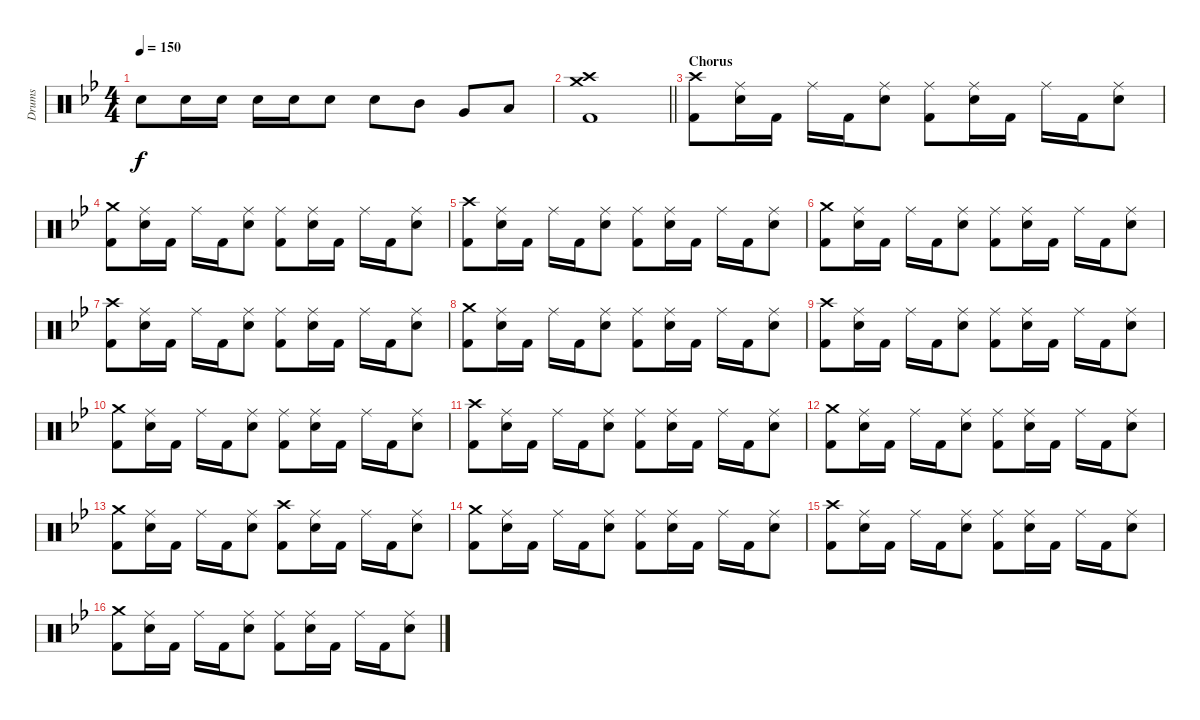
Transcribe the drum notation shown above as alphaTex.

\track ("Drums" "Drums") {instrument percussion}
\staff {score}
\articulation defaults
\ts (4 4)
\tempo 150
\clef neutral
\ks bb "Snare (hit) 2".8{dy f} "Snare (hit) 2".16 "Snare (hit) 2".16 "Snare (hit) 2".16 "Snare (hit) 2".16 "Snare (hit) 2".8 "Snare (hit) 2".8 "Mid Tom (hit)".8 "Very Low Tom (hit)".8 "Low Floor Tom (hit)".8
|
\barLineRight lightlight
("Crash high (hit)" "Crash medium (hit)" "Kick (hit) 2").1 |
\section ("" "Chorus")
("Crash high (hit)" "Kick (hit) 2").8 ("Ride (middle)" "Snare (hit) 2").16 "Kick (hit) 2".16 "Ride (middle)".16 "Kick (hit) 2".16 ("Ride (middle)" "Snare (hit) 2").8 ("Ride (middle)" "Kick (hit) 2").8 ("Ride (middle)" "Snare (hit) 2").16 "Kick (hit) 2".16 "Ride (middle)".16 "Kick (hit) 2".16 ("Ride (middle)" "Snare (hit) 2").8 |
("Crash medium (hit)" "Kick (hit) 2").8 ("Ride (middle)" "Snare (hit) 2").16 "Kick (hit) 2".16 "Ride (middle)".16 "Kick (hit) 2".16 ("Ride (middle)" "Snare (hit) 2").8 ("Ride (middle)" "Kick (hit) 2").8 ("Ride (middle)" "Snare (hit) 2").16 "Kick (hit) 2".16 "Ride (middle)".16 "Kick (hit) 2".16 ("Ride (middle)" "Snare (hit) 2").8 |
("Crash high (hit)" "Kick (hit) 2").8 ("Ride (middle)" "Snare (hit) 2").16 "Kick (hit) 2".16 "Ride (middle)".16 "Kick (hit) 2".16 ("Ride (middle)" "Snare (hit) 2").8 ("Ride (middle)" "Kick (hit) 2").8 ("Ride (middle)" "Snare (hit) 2").16 "Kick (hit) 2".16 "Ride (middle)".16 "Kick (hit) 2".16 ("Ride (middle)" "Snare (hit) 2").8 |
("Crash medium (hit)" "Kick (hit) 2").8 ("Ride (middle)" "Snare (hit) 2").16 "Kick (hit) 2".16 "Ride (middle)".16 "Kick (hit) 2".16 ("Ride (middle)" "Snare (hit) 2").8 ("Ride (middle)" "Kick (hit) 2").8 ("Ride (middle)" "Snare (hit) 2").16 "Kick (hit) 2".16 "Ride (middle)".16 "Kick (hit) 2".16 ("Ride (middle)" "Snare (hit) 2").8 |
("Crash high (hit)" "Kick (hit) 2").8 ("Ride (middle)" "Snare (hit) 2").16 "Kick (hit) 2".16 "Ride (middle)".16 "Kick (hit) 2".16 ("Ride (middle)" "Snare (hit) 2").8 ("Ride (middle)" "Kick (hit) 2").8 ("Ride (middle)" "Snare (hit) 2").16 "Kick (hit) 2".16 "Ride (middle)".16 "Kick (hit) 2".16 ("Ride (middle)" "Snare (hit) 2").8 |
("Crash medium (hit)" "Kick (hit) 2").8 ("Ride (middle)" "Snare (hit) 2").16 "Kick (hit) 2".16 "Ride (middle)".16 "Kick (hit) 2".16 ("Ride (middle)" "Snare (hit) 2").8 ("Ride (middle)" "Kick (hit) 2").8 ("Ride (middle)" "Snare (hit) 2").16 "Kick (hit) 2".16 "Ride (middle)".16 "Kick (hit) 2".16 ("Ride (middle)" "Snare (hit) 2").8 |
("Crash high (hit)" "Kick (hit) 2").8 ("Ride (middle)" "Snare (hit) 2").16 "Kick (hit) 2".16 "Ride (middle)".16 "Kick (hit) 2".16 ("Ride (middle)" "Snare (hit) 2").8 ("Ride (middle)" "Kick (hit) 2").8 ("Ride (middle)" "Snare (hit) 2").16 "Kick (hit) 2".16 "Ride (middle)".16 "Kick (hit) 2".16 ("Ride (middle)" "Snare (hit) 2").8 |
("Crash medium (hit)" "Kick (hit) 2").8 ("Ride (middle)" "Snare (hit) 2").16 "Kick (hit) 2".16 "Ride (middle)".16 "Kick (hit) 2".16 ("Ride (middle)" "Snare (hit) 2").8 ("Ride (middle)" "Kick (hit) 2").8 ("Ride (middle)" "Snare (hit) 2").16 "Kick (hit) 2".16 "Ride (middle)".16 "Kick (hit) 2".16 ("Ride (middle)" "Snare (hit) 2").8 |
("Crash high (hit)" "Kick (hit) 2").8 ("Ride (middle)" "Snare (hit) 2").16 "Kick (hit) 2".16 "Ride (middle)".16 "Kick (hit) 2".16 ("Ride (middle)" "Snare (hit) 2").8 ("Ride (middle)" "Kick (hit) 2").8 ("Ride (middle)" "Snare (hit) 2").16 "Kick (hit) 2".16 "Ride (middle)".16 "Kick (hit) 2".16 ("Ride (middle)" "Snare (hit) 2").8 |
("Crash medium (hit)" "Kick (hit) 2").8 ("Ride (middle)" "Snare (hit) 2").16 "Kick (hit) 2".16 "Ride (middle)".16 "Kick (hit) 2".16 ("Ride (middle)" "Snare (hit) 2").8 ("Ride (middle)" "Kick (hit) 2").8 ("Ride (middle)" "Snare (hit) 2").16 "Kick (hit) 2".16 "Ride (middle)".16 "Kick (hit) 2".16 ("Ride (middle)" "Snare (hit) 2").8 |
("Crash medium (hit)" "Kick (hit) 2").8 ("Ride (middle)" "Snare (hit) 2").16 "Kick (hit) 2".16 "Ride (middle)".16 "Kick (hit) 2".16 ("Ride (middle)" "Snare (hit) 2").8 ("Crash high (hit)" "Kick (hit) 2").8 ("Ride (middle)" "Snare (hit) 2").16 "Kick (hit) 2".16 "Ride (middle)".16 "Kick (hit) 2".16 ("Ride (middle)" "Snare (hit) 2").8 |
("Crash medium (hit)" "Kick (hit) 2").8 ("Ride (middle)" "Snare (hit) 2").16 "Kick (hit) 2".16 "Ride (middle)".16 "Kick (hit) 2".16 ("Ride (middle)" "Snare (hit) 2").8 ("Ride (middle)" "Kick (hit) 2").8 ("Ride (middle)" "Snare (hit) 2").16 "Kick (hit) 2".16 "Ride (middle)".16 "Kick (hit) 2".16 ("Ride (middle)" "Snare (hit) 2").8 |
("Crash high (hit)" "Kick (hit) 2").8 ("Ride (middle)" "Snare (hit) 2").16 "Kick (hit) 2".16 "Ride (middle)".16 "Kick (hit) 2".16 ("Ride (middle)" "Snare (hit) 2").8 ("Ride (middle)" "Kick (hit) 2").8 ("Ride (middle)" "Snare (hit) 2").16 "Kick (hit) 2".16 "Ride (middle)".16 "Kick (hit) 2".16 ("Ride (middle)" "Snare (hit) 2").8 |
("Crash medium (hit)" "Kick (hit) 2").8 ("Ride (middle)" "Snare (hit) 2").16 "Kick (hit) 2".16 "Ride (middle)".16 "Kick (hit) 2".16 ("Ride (middle)" "Snare (hit) 2").8 ("Ride (middle)" "Kick (hit) 2").8 ("Ride (middle)" "Snare (hit) 2").16 "Kick (hit) 2".16 "Ride (middle)".16 "Kick (hit) 2".16 ("Ride (middle)" "Snare (hit) 2").8
